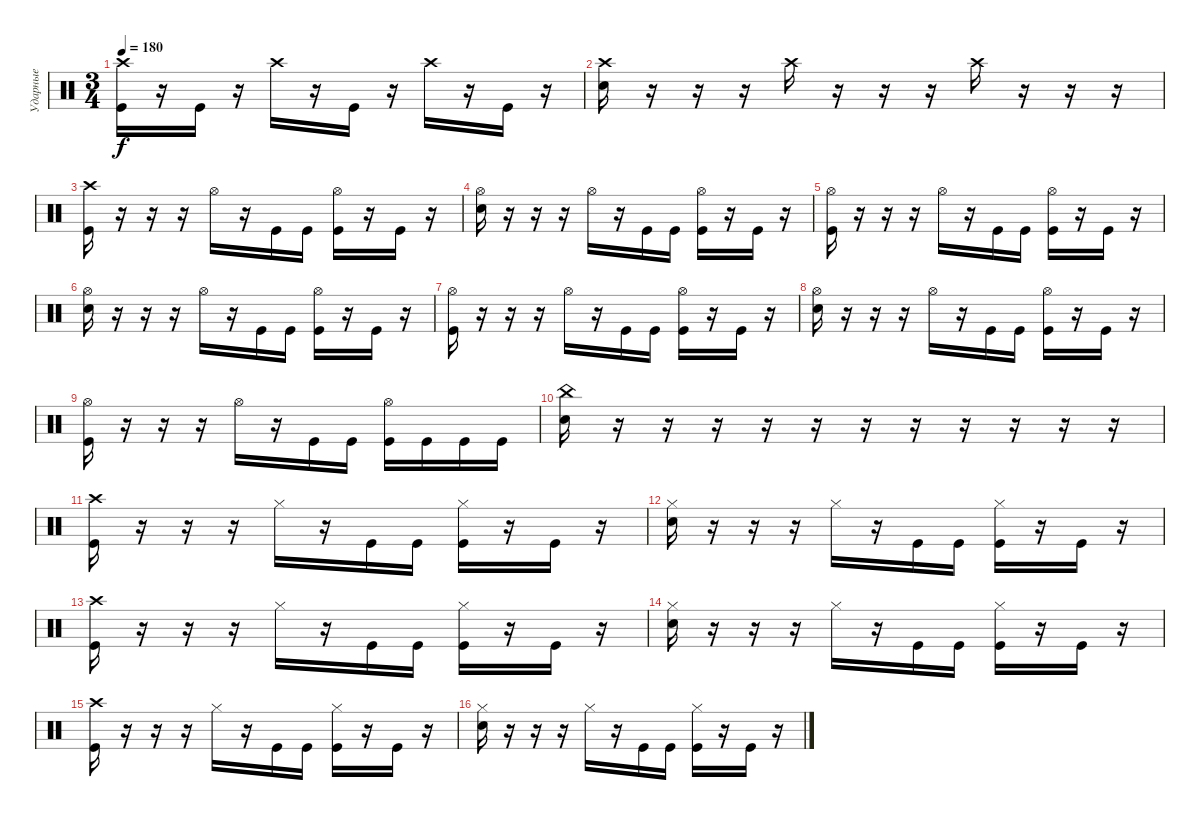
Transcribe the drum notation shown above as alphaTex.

\track ("Ударные" "Ударные") {instrument percussion}
\staff {score}
\articulation defaults
\ts (3 4)
\tempo 180
\clef neutral
\ks c
("Crash high (hit)" "Kick (hit)").16{dy f} r.16 "Kick (hit)".16 r.16 "Crash high (hit)".16 r.16 "Kick (hit)".16 r.16 "Crash high (hit)".16 r.16 "Kick (hit)".16 r.16 |
("Crash high (hit)" "Electric Snare (hit)").16 r.16 r.16 r.16 "Crash high (hit)".16 r.16 r.16 r.16 "Crash high (hit)".16 r.16 r.16 r.16 |
("Crash high (hit)" "Kick (hit)").16 r.16 r.16 r.16 "Hi-Hat (open)".16 r.16 "Kick (hit)".16 "Kick (hit)".16 ("Hi-Hat (open)" "Kick (hit)").16 r.16 "Kick (hit)".16 r.16 |
("Hi-Hat (open)" "Electric Snare (hit)").16 r.16 r.16 r.16 "Hi-Hat (open)".16 r.16 "Kick (hit)".16 "Kick (hit)".16 ("Hi-Hat (open)" "Kick (hit)").16 r.16 "Kick (hit)".16 r.16 |
("Hi-Hat (open)" "Kick (hit)").16 r.16 r.16 r.16 "Hi-Hat (open)".16 r.16 "Kick (hit)".16 "Kick (hit)".16 ("Hi-Hat (open)" "Kick (hit)").16 r.16 "Kick (hit)".16 r.16 |
("Hi-Hat (open)" "Electric Snare (hit)").16 r.16 r.16 r.16 "Hi-Hat (open)".16 r.16 "Kick (hit)".16 "Kick (hit)".16 ("Hi-Hat (open)" "Kick (hit)").16 r.16 "Kick (hit)".16 r.16 |
("Hi-Hat (open)" "Kick (hit)").16 r.16 r.16 r.16 "Hi-Hat (open)".16 r.16 "Kick (hit)".16 "Kick (hit)".16 ("Hi-Hat (open)" "Kick (hit)").16 r.16 "Kick (hit)".16 r.16 |
("Hi-Hat (open)" "Electric Snare (hit)").16 r.16 r.16 r.16 "Hi-Hat (open)".16 r.16 "Kick (hit)".16 "Kick (hit)".16 ("Hi-Hat (open)" "Kick (hit)").16 r.16 "Kick (hit)".16 r.16 |
("Hi-Hat (open)" "Kick (hit)").16 r.16 r.16 r.16 "Hi-Hat (open)".16 r.16 "Kick (hit)".16 "Kick (hit)".16 ("Hi-Hat (open)" "Kick (hit)").16 "Kick (hit)".16 "Kick (hit)".16 "Kick (hit)".16 |
("China (hit)" "Electric Snare (hit)").16 r.16 r.16 r.16 r.16 r.16 r.16 r.16 r.16 r.16 r.16 r.16 |
("Crash high (hit)" "Kick (hit)").16 r.16 r.16 r.16 "Hi-Hat (closed)".16 r.16 "Kick (hit)".16 "Kick (hit)".16 ("Hi-Hat (closed)" "Kick (hit)").16 r.16 "Kick (hit)".16 r.16 |
("Hi-Hat (closed)" "Electric Snare (hit)").16 r.16 r.16 r.16 "Hi-Hat (closed)".16 r.16 "Kick (hit)".16 "Kick (hit)".16 ("Hi-Hat (closed)" "Kick (hit)").16 r.16 "Kick (hit)".16 r.16 |
("Crash high (hit)" "Kick (hit)").16 r.16 r.16 r.16 "Hi-Hat (closed)".16 r.16 "Kick (hit)".16 "Kick (hit)".16 ("Hi-Hat (closed)" "Kick (hit)").16 r.16 "Kick (hit)".16 r.16 |
("Hi-Hat (closed)" "Electric Snare (hit)").16 r.16 r.16 r.16 "Hi-Hat (closed)".16 r.16 "Kick (hit)".16 "Kick (hit)".16 ("Hi-Hat (closed)" "Kick (hit)").16 r.16 "Kick (hit)".16 r.16 |
("Crash high (hit)" "Kick (hit)").16 r.16 r.16 r.16 "Hi-Hat (closed)".16 r.16 "Kick (hit)".16 "Kick (hit)".16 ("Hi-Hat (closed)" "Kick (hit)").16 r.16 "Kick (hit)".16 r.16 |
("Hi-Hat (closed)" "Electric Snare (hit)").16 r.16 r.16 r.16 "Hi-Hat (closed)".16 r.16 "Kick (hit)".16 "Kick (hit)".16 ("Hi-Hat (closed)" "Kick (hit)").16 r.16 "Kick (hit)".16 r.16
